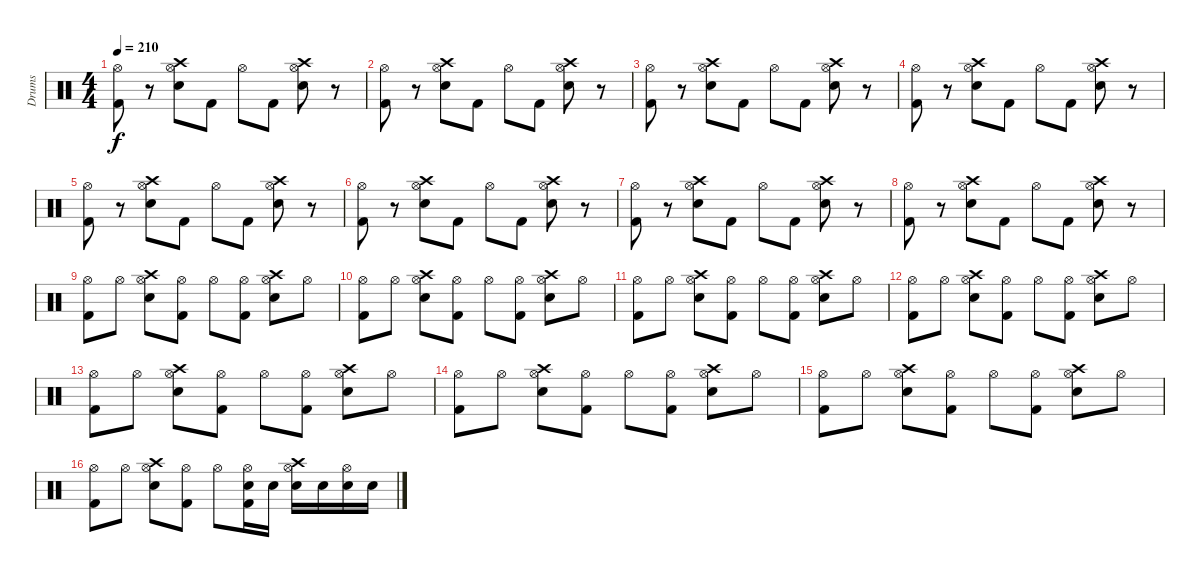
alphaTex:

\track ("Drums" "Drums") {instrument percussion}
\staff {score}
\articulation defaults
\ts (4 4)
\tempo 210
\clef neutral
\ks c
("Hi-Hat (open)" "Kick (hit) 2").8{dy f} r.8 ("Crash high (hit)" "Hi-Hat (open)" "Electric Snare (hit)").8 "Kick (hit) 2".8 "Hi-Hat (open)".8 "Kick (hit) 2".8 ("Crash high (hit)" "Hi-Hat (open)" "Electric Snare (hit)").8 r.8 |
("Hi-Hat (open)" "Kick (hit) 2").8 r.8 ("Crash high (hit)" "Hi-Hat (open)" "Electric Snare (hit)").8 "Kick (hit) 2".8 "Hi-Hat (open)".8 "Kick (hit) 2".8 ("Crash high (hit)" "Hi-Hat (open)" "Electric Snare (hit)").8 r.8 |
("Hi-Hat (open)" "Kick (hit) 2").8 r.8 ("Crash high (hit)" "Hi-Hat (open)" "Electric Snare (hit)").8 "Kick (hit) 2".8 "Hi-Hat (open)".8 "Kick (hit) 2".8 ("Crash high (hit)" "Hi-Hat (open)" "Electric Snare (hit)").8 r.8 |
("Hi-Hat (open)" "Kick (hit) 2").8 r.8 ("Crash high (hit)" "Hi-Hat (open)" "Electric Snare (hit)").8 "Kick (hit) 2".8 "Hi-Hat (open)".8 "Kick (hit) 2".8 ("Crash high (hit)" "Hi-Hat (open)" "Electric Snare (hit)").8 r.8 |
("Hi-Hat (open)" "Kick (hit) 2").8 r.8 ("Crash high (hit)" "Hi-Hat (open)" "Electric Snare (hit)").8 "Kick (hit) 2".8 "Hi-Hat (open)".8 "Kick (hit) 2".8 ("Crash high (hit)" "Hi-Hat (open)" "Electric Snare (hit)").8 r.8 |
("Hi-Hat (open)" "Kick (hit) 2").8 r.8 ("Crash high (hit)" "Hi-Hat (open)" "Electric Snare (hit)").8 "Kick (hit) 2".8 "Hi-Hat (open)".8 "Kick (hit) 2".8 ("Crash high (hit)" "Hi-Hat (open)" "Electric Snare (hit)").8 r.8 |
("Hi-Hat (open)" "Kick (hit) 2").8 r.8 ("Crash high (hit)" "Hi-Hat (open)" "Electric Snare (hit)").8 "Kick (hit) 2".8 "Hi-Hat (open)".8 "Kick (hit) 2".8 ("Crash high (hit)" "Hi-Hat (open)" "Electric Snare (hit)").8 r.8 |
("Hi-Hat (open)" "Kick (hit) 2").8 r.8 ("Crash high (hit)" "Hi-Hat (open)" "Electric Snare (hit)").8 "Kick (hit) 2".8 "Hi-Hat (open)".8 "Kick (hit) 2".8 ("Crash high (hit)" "Hi-Hat (open)" "Electric Snare (hit)").8 r.8 |
("Hi-Hat (open)" "Kick (hit) 2").8 "Hi-Hat (open)".8 ("Crash high (hit)" "Hi-Hat (open)" "Electric Snare (hit)").8 ("Hi-Hat (open)" "Kick (hit) 2").8 "Hi-Hat (open)".8 ("Hi-Hat (open)" "Kick (hit) 2").8 ("Crash high (hit)" "Hi-Hat (open)" "Electric Snare (hit)").8 "Hi-Hat (open)".8 |
("Hi-Hat (open)" "Kick (hit) 2").8 "Hi-Hat (open)".8 ("Crash high (hit)" "Hi-Hat (open)" "Electric Snare (hit)").8 ("Hi-Hat (open)" "Kick (hit) 2").8 "Hi-Hat (open)".8 ("Hi-Hat (open)" "Kick (hit) 2").8 ("Crash high (hit)" "Hi-Hat (open)" "Electric Snare (hit)").8 "Hi-Hat (open)".8 |
("Hi-Hat (open)" "Kick (hit) 2").8 "Hi-Hat (open)".8 ("Crash high (hit)" "Hi-Hat (open)" "Electric Snare (hit)").8 ("Hi-Hat (open)" "Kick (hit) 2").8 "Hi-Hat (open)".8 ("Hi-Hat (open)" "Kick (hit) 2").8 ("Crash high (hit)" "Hi-Hat (open)" "Electric Snare (hit)").8 "Hi-Hat (open)".8 |
("Hi-Hat (open)" "Kick (hit) 2").8 "Hi-Hat (open)".8 ("Crash high (hit)" "Hi-Hat (open)" "Electric Snare (hit)").8 ("Hi-Hat (open)" "Kick (hit) 2").8 "Hi-Hat (open)".8 ("Hi-Hat (open)" "Kick (hit) 2").8 ("Crash high (hit)" "Hi-Hat (open)" "Electric Snare (hit)").8 "Hi-Hat (open)".8 |
("Hi-Hat (open)" "Kick (hit) 2").8 "Hi-Hat (open)".8 ("Crash high (hit)" "Hi-Hat (open)" "Electric Snare (hit)").8 ("Hi-Hat (open)" "Kick (hit) 2").8 "Hi-Hat (open)".8 ("Hi-Hat (open)" "Kick (hit) 2").8 ("Crash high (hit)" "Hi-Hat (open)" "Electric Snare (hit)").8 "Hi-Hat (open)".8 |
("Hi-Hat (open)" "Kick (hit) 2").8 "Hi-Hat (open)".8 ("Crash high (hit)" "Hi-Hat (open)" "Electric Snare (hit)").8 ("Hi-Hat (open)" "Kick (hit) 2").8 "Hi-Hat (open)".8 ("Hi-Hat (open)" "Kick (hit) 2").8 ("Crash high (hit)" "Hi-Hat (open)" "Electric Snare (hit)").8 "Hi-Hat (open)".8 |
("Hi-Hat (open)" "Kick (hit) 2").8 "Hi-Hat (open)".8 ("Crash high (hit)" "Hi-Hat (open)" "Electric Snare (hit)").8 ("Hi-Hat (open)" "Kick (hit) 2").8 "Hi-Hat (open)".8 ("Hi-Hat (open)" "Kick (hit) 2").8 ("Crash high (hit)" "Hi-Hat (open)" "Electric Snare (hit)").8 "Hi-Hat (open)".8 |
("Hi-Hat (open)" "Kick (hit) 2").8 "Hi-Hat (open)".8 ("Crash high (hit)" "Hi-Hat (open)" "Electric Snare (hit)").8 ("Hi-Hat (open)" "Kick (hit) 2").8 "Hi-Hat (open)".8 ("Hi-Hat (open)" "Electric Snare (hit)" "Kick (hit) 2").16 "Electric Snare (hit)".16 ("Crash high (hit)" "Hi-Hat (open)" "Electric Snare (hit)").16 "Electric Snare (hit)".16 ("Hi-Hat (open)" "Electric Snare (hit)").16 "Electric Snare (hit)".16
